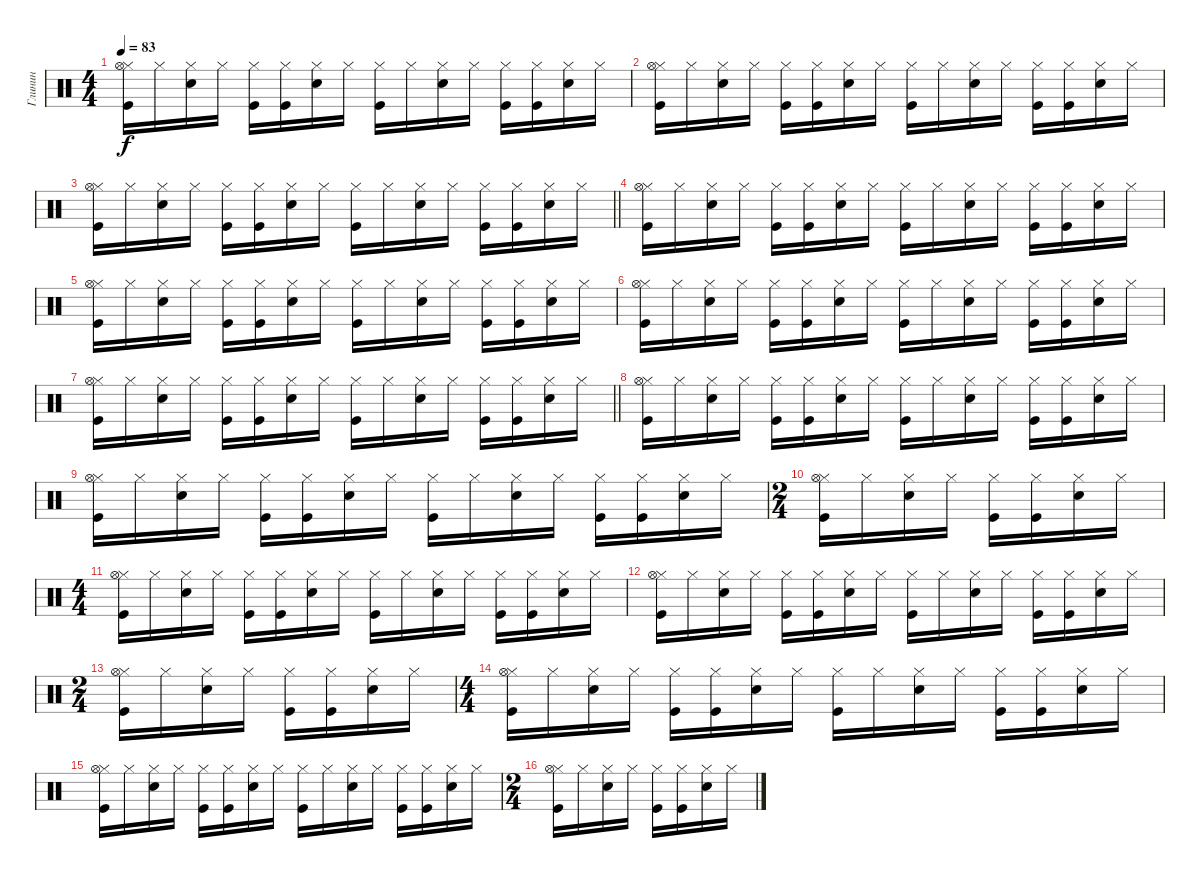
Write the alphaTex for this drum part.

\track ("Глинин" "Глинин") {instrument percussion}
\staff {score}
\articulation defaults
\ts (4 4)
\tempo 83
\clef neutral
\ks c
("Hi-Hat (closed)" "Kick (hit)" "Hi-Hat (open)").16{dy f} "Hi-Hat (closed)".16 ("Hi-Hat (closed)" "Snare (hit) 2").16 "Hi-Hat (closed)".16 ("Hi-Hat (closed)" "Kick (hit)").16 ("Hi-Hat (closed)" "Kick (hit)").16 ("Hi-Hat (closed)" "Snare (hit) 2").16 "Hi-Hat (closed)".16 ("Hi-Hat (closed)" "Kick (hit)").16 "Hi-Hat (closed)".16 ("Hi-Hat (closed)" "Snare (hit) 2").16 "Hi-Hat (closed)".16 ("Hi-Hat (closed)" "Kick (hit)").16 ("Hi-Hat (closed)" "Kick (hit)").16 ("Hi-Hat (closed)" "Snare (hit) 2").16 "Hi-Hat (closed)".16 |
("Hi-Hat (closed)" "Kick (hit)" "Hi-Hat (open)").16 "Hi-Hat (closed)".16 ("Hi-Hat (closed)" "Snare (hit) 2").16 "Hi-Hat (closed)".16 ("Hi-Hat (closed)" "Kick (hit)").16 ("Hi-Hat (closed)" "Kick (hit)").16 ("Hi-Hat (closed)" "Snare (hit) 2").16 "Hi-Hat (closed)".16 ("Hi-Hat (closed)" "Kick (hit)").16 "Hi-Hat (closed)".16 ("Hi-Hat (closed)" "Snare (hit) 2").16 "Hi-Hat (closed)".16 ("Hi-Hat (closed)" "Kick (hit)").16 ("Hi-Hat (closed)" "Kick (hit)").16 ("Hi-Hat (closed)" "Snare (hit) 2").16 "Hi-Hat (closed)".16 |
\barLineRight lightlight
("Hi-Hat (closed)" "Kick (hit)" "Hi-Hat (open)").16 "Hi-Hat (closed)".16 ("Hi-Hat (closed)" "Snare (hit) 2").16 "Hi-Hat (closed)".16 ("Hi-Hat (closed)" "Kick (hit)").16 ("Hi-Hat (closed)" "Kick (hit)").16 ("Hi-Hat (closed)" "Snare (hit) 2").16 "Hi-Hat (closed)".16 ("Hi-Hat (closed)" "Kick (hit)").16 "Hi-Hat (closed)".16 ("Hi-Hat (closed)" "Snare (hit) 2").16 "Hi-Hat (closed)".16 ("Hi-Hat (closed)" "Kick (hit)").16 ("Hi-Hat (closed)" "Kick (hit)").16 ("Hi-Hat (closed)" "Snare (hit) 2").16 "Hi-Hat (closed)".16 |
("Hi-Hat (closed)" "Kick (hit)" "Hi-Hat (open)").16 "Hi-Hat (closed)".16 ("Hi-Hat (closed)" "Snare (hit) 2").16 "Hi-Hat (closed)".16 ("Hi-Hat (closed)" "Kick (hit)").16 ("Hi-Hat (closed)" "Kick (hit)").16 ("Hi-Hat (closed)" "Snare (hit) 2").16 "Hi-Hat (closed)".16 ("Hi-Hat (closed)" "Kick (hit)").16 "Hi-Hat (closed)".16 ("Hi-Hat (closed)" "Snare (hit) 2").16 "Hi-Hat (closed)".16 ("Hi-Hat (closed)" "Kick (hit)").16 ("Hi-Hat (closed)" "Kick (hit)").16 ("Hi-Hat (closed)" "Snare (hit) 2").16 "Hi-Hat (closed)".16 |
("Hi-Hat (closed)" "Kick (hit)" "Hi-Hat (open)").16 "Hi-Hat (closed)".16 ("Hi-Hat (closed)" "Snare (hit) 2").16 "Hi-Hat (closed)".16 ("Hi-Hat (closed)" "Kick (hit)").16 ("Hi-Hat (closed)" "Kick (hit)").16 ("Hi-Hat (closed)" "Snare (hit) 2").16 "Hi-Hat (closed)".16 ("Hi-Hat (closed)" "Kick (hit)").16 "Hi-Hat (closed)".16 ("Hi-Hat (closed)" "Snare (hit) 2").16 "Hi-Hat (closed)".16 ("Hi-Hat (closed)" "Kick (hit)").16 ("Hi-Hat (closed)" "Kick (hit)").16 ("Hi-Hat (closed)" "Snare (hit) 2").16 "Hi-Hat (closed)".16 |
("Hi-Hat (closed)" "Kick (hit)" "Hi-Hat (open)").16 "Hi-Hat (closed)".16 ("Hi-Hat (closed)" "Snare (hit) 2").16 "Hi-Hat (closed)".16 ("Hi-Hat (closed)" "Kick (hit)").16 ("Hi-Hat (closed)" "Kick (hit)").16 ("Hi-Hat (closed)" "Snare (hit) 2").16 "Hi-Hat (closed)".16 ("Hi-Hat (closed)" "Kick (hit)").16 "Hi-Hat (closed)".16 ("Hi-Hat (closed)" "Snare (hit) 2").16 "Hi-Hat (closed)".16 ("Hi-Hat (closed)" "Kick (hit)").16 ("Hi-Hat (closed)" "Kick (hit)").16 ("Hi-Hat (closed)" "Snare (hit) 2").16 "Hi-Hat (closed)".16 |
\barLineRight lightlight
("Hi-Hat (closed)" "Kick (hit)" "Hi-Hat (open)").16 "Hi-Hat (closed)".16 ("Hi-Hat (closed)" "Snare (hit) 2").16 "Hi-Hat (closed)".16 ("Hi-Hat (closed)" "Kick (hit)").16 ("Hi-Hat (closed)" "Kick (hit)").16 ("Hi-Hat (closed)" "Snare (hit) 2").16 "Hi-Hat (closed)".16 ("Hi-Hat (closed)" "Kick (hit)").16 "Hi-Hat (closed)".16 ("Hi-Hat (closed)" "Snare (hit) 2").16 "Hi-Hat (closed)".16 ("Hi-Hat (closed)" "Kick (hit)").16 ("Hi-Hat (closed)" "Kick (hit)").16 ("Hi-Hat (closed)" "Snare (hit) 2").16 "Hi-Hat (closed)".16 |
("Hi-Hat (closed)" "Kick (hit)" "Hi-Hat (open)").16 "Hi-Hat (closed)".16 ("Hi-Hat (closed)" "Snare (hit) 2").16 "Hi-Hat (closed)".16 ("Hi-Hat (closed)" "Kick (hit)").16 ("Hi-Hat (closed)" "Kick (hit)").16 ("Hi-Hat (closed)" "Snare (hit) 2").16 "Hi-Hat (closed)".16 ("Hi-Hat (closed)" "Kick (hit)").16 "Hi-Hat (closed)".16 ("Hi-Hat (closed)" "Snare (hit) 2").16 "Hi-Hat (closed)".16 ("Hi-Hat (closed)" "Kick (hit)").16 ("Hi-Hat (closed)" "Kick (hit)").16 ("Hi-Hat (closed)" "Snare (hit) 2").16 "Hi-Hat (closed)".16 |
("Hi-Hat (closed)" "Kick (hit)" "Hi-Hat (open)").16 "Hi-Hat (closed)".16 ("Hi-Hat (closed)" "Snare (hit) 2").16 "Hi-Hat (closed)".16 ("Hi-Hat (closed)" "Kick (hit)").16 ("Hi-Hat (closed)" "Kick (hit)").16 ("Hi-Hat (closed)" "Snare (hit) 2").16 "Hi-Hat (closed)".16 ("Hi-Hat (closed)" "Kick (hit)").16 "Hi-Hat (closed)".16 ("Hi-Hat (closed)" "Snare (hit) 2").16 "Hi-Hat (closed)".16 ("Hi-Hat (closed)" "Kick (hit)").16 ("Hi-Hat (closed)" "Kick (hit)").16 ("Hi-Hat (closed)" "Snare (hit) 2").16 "Hi-Hat (closed)".16 |
\ts (2 4)
("Hi-Hat (closed)" "Kick (hit)" "Hi-Hat (open)").16 "Hi-Hat (closed)".16 ("Hi-Hat (closed)" "Snare (hit) 2").16 "Hi-Hat (closed)".16 ("Hi-Hat (closed)" "Kick (hit)").16 ("Hi-Hat (closed)" "Kick (hit)").16 ("Hi-Hat (closed)" "Snare (hit) 2").16 "Hi-Hat (closed)".16 |
\ts (4 4)
("Hi-Hat (closed)" "Kick (hit)" "Hi-Hat (open)").16 "Hi-Hat (closed)".16 ("Hi-Hat (closed)" "Snare (hit) 2").16 "Hi-Hat (closed)".16 ("Hi-Hat (closed)" "Kick (hit)").16 ("Hi-Hat (closed)" "Kick (hit)").16 ("Hi-Hat (closed)" "Snare (hit) 2").16 "Hi-Hat (closed)".16 ("Hi-Hat (closed)" "Kick (hit)").16 "Hi-Hat (closed)".16 ("Hi-Hat (closed)" "Snare (hit) 2").16 "Hi-Hat (closed)".16 ("Hi-Hat (closed)" "Kick (hit)").16 ("Hi-Hat (closed)" "Kick (hit)").16 ("Hi-Hat (closed)" "Snare (hit) 2").16 "Hi-Hat (closed)".16 |
("Hi-Hat (closed)" "Kick (hit)" "Hi-Hat (open)").16 "Hi-Hat (closed)".16 ("Hi-Hat (closed)" "Snare (hit) 2").16 "Hi-Hat (closed)".16 ("Hi-Hat (closed)" "Kick (hit)").16 ("Hi-Hat (closed)" "Kick (hit)").16 ("Hi-Hat (closed)" "Snare (hit) 2").16 "Hi-Hat (closed)".16 ("Hi-Hat (closed)" "Kick (hit)").16 "Hi-Hat (closed)".16 ("Hi-Hat (closed)" "Snare (hit) 2").16 "Hi-Hat (closed)".16 ("Hi-Hat (closed)" "Kick (hit)").16 ("Hi-Hat (closed)" "Kick (hit)").16 ("Hi-Hat (closed)" "Snare (hit) 2").16 "Hi-Hat (closed)".16 |
\ts (2 4)
("Hi-Hat (closed)" "Kick (hit)" "Hi-Hat (open)").16 "Hi-Hat (closed)".16 ("Hi-Hat (closed)" "Snare (hit) 2").16 "Hi-Hat (closed)".16 ("Hi-Hat (closed)" "Kick (hit)").16 ("Hi-Hat (closed)" "Kick (hit)").16 ("Hi-Hat (closed)" "Snare (hit) 2").16 "Hi-Hat (closed)".16 |
\ts (4 4)
("Hi-Hat (closed)" "Kick (hit)" "Hi-Hat (open)").16 "Hi-Hat (closed)".16 ("Hi-Hat (closed)" "Snare (hit) 2").16 "Hi-Hat (closed)".16 ("Hi-Hat (closed)" "Kick (hit)").16 ("Hi-Hat (closed)" "Kick (hit)").16 ("Hi-Hat (closed)" "Snare (hit) 2").16 "Hi-Hat (closed)".16 ("Hi-Hat (closed)" "Kick (hit)").16 "Hi-Hat (closed)".16 ("Hi-Hat (closed)" "Snare (hit) 2").16 "Hi-Hat (closed)".16 ("Hi-Hat (closed)" "Kick (hit)").16 ("Hi-Hat (closed)" "Kick (hit)").16 ("Hi-Hat (closed)" "Snare (hit) 2").16 "Hi-Hat (closed)".16 |
("Hi-Hat (closed)" "Kick (hit)" "Hi-Hat (open)").16 "Hi-Hat (closed)".16 ("Hi-Hat (closed)" "Snare (hit) 2").16 "Hi-Hat (closed)".16 ("Hi-Hat (closed)" "Kick (hit)").16 ("Hi-Hat (closed)" "Kick (hit)").16 ("Hi-Hat (closed)" "Snare (hit) 2").16 "Hi-Hat (closed)".16 ("Hi-Hat (closed)" "Kick (hit)").16 "Hi-Hat (closed)".16 ("Hi-Hat (closed)" "Snare (hit) 2").16 "Hi-Hat (closed)".16 ("Hi-Hat (closed)" "Kick (hit)").16 ("Hi-Hat (closed)" "Kick (hit)").16 ("Hi-Hat (closed)" "Snare (hit) 2").16 "Hi-Hat (closed)".16 |
\ts (2 4)
("Hi-Hat (closed)" "Kick (hit)" "Hi-Hat (open)").16 "Hi-Hat (closed)".16 ("Hi-Hat (closed)" "Snare (hit) 2").16 "Hi-Hat (closed)".16 ("Hi-Hat (closed)" "Kick (hit)").16 ("Hi-Hat (closed)" "Kick (hit)").16 ("Hi-Hat (closed)" "Snare (hit) 2").16 "Hi-Hat (closed)".16
